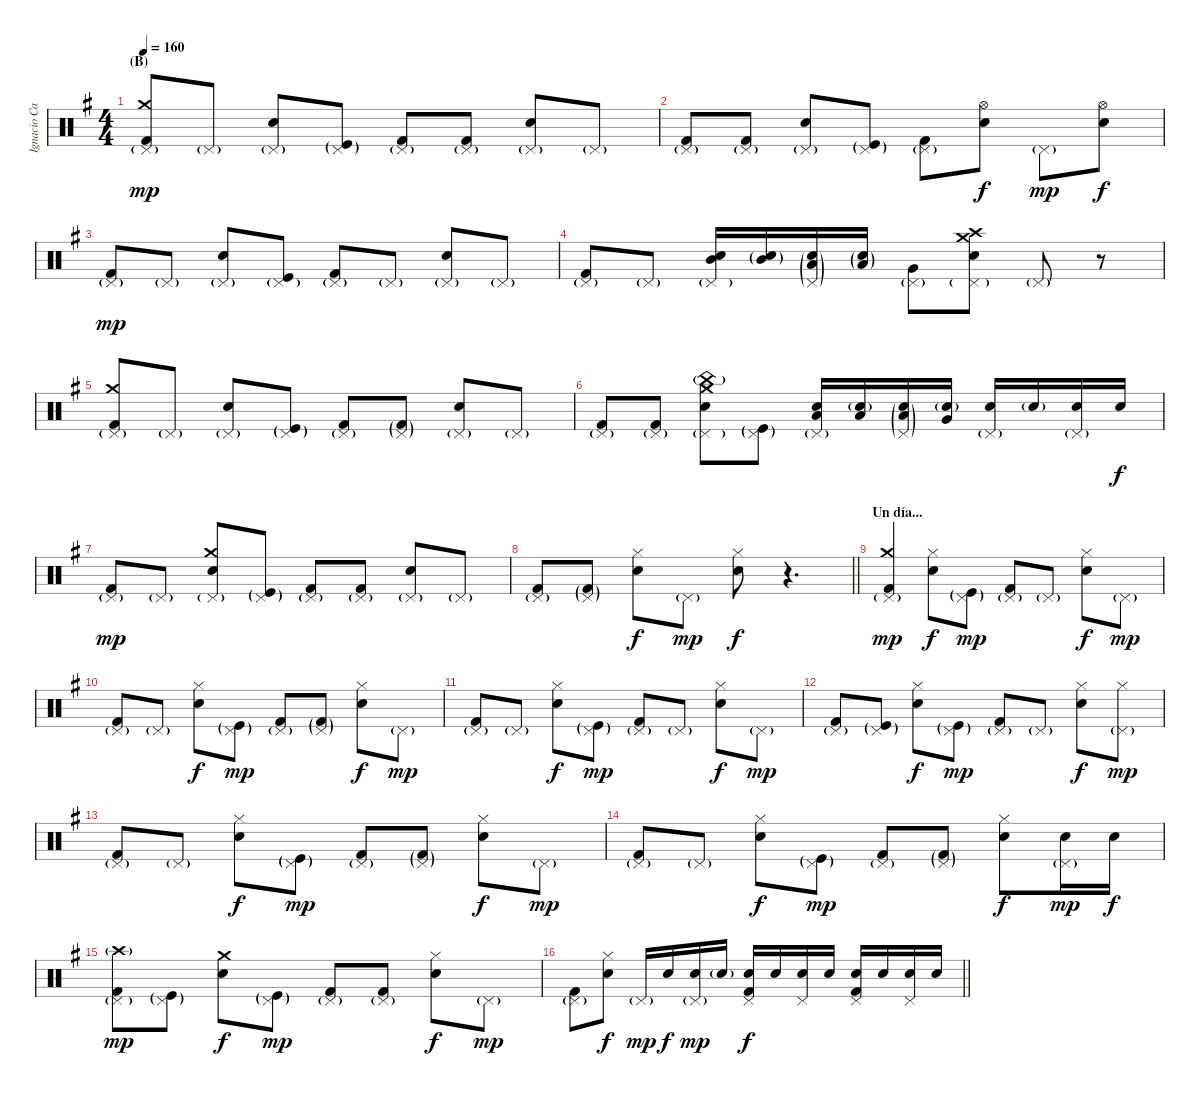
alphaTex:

\track ("Ignacio Cantera - Batería" "Ignacio Ca") {instrument percussion}
\staff {score}
\articulation defaults
\ts (4 4)
\section ("" "(B)")
\tempo 160
\clef neutral
\ks eminor
("Pedal Hi-Hat (hit)"{g} "Crash medium (hit)" "Kick (hit) 2").8{dy mp} "Pedal Hi-Hat (hit)"{g}.8 ("Pedal Hi-Hat (hit)"{g} "Snare (hit) 2").8 ("Pedal Hi-Hat (hit)"{g} "Kick (hit)"{g}).8 ("Pedal Hi-Hat (hit)"{g} "Kick (hit) 2").8 ("Pedal Hi-Hat (hit)"{g} "Kick (hit) 2").8 ("Pedal Hi-Hat (hit)"{g} "Snare (hit) 2").8 "Pedal Hi-Hat (hit)"{g}.8 |
("Pedal Hi-Hat (hit)"{g} "Kick (hit) 2").8 ("Pedal Hi-Hat (hit)"{g} "Kick (hit) 2").8 ("Pedal Hi-Hat (hit)"{g} "Snare (hit) 2").8 ("Pedal Hi-Hat (hit)"{g} "Kick (hit)"{g}).8 ("Pedal Hi-Hat (hit)"{g} "Kick (hit) 2").8 ("Hi-Hat (open)" "Snare (hit) 2").8{dy f} "Pedal Hi-Hat (hit)"{g}.8{dy mp} ("Hi-Hat (open)" "Snare (hit) 2").8{dy f} |
("Pedal Hi-Hat (hit)"{g} "Kick (hit) 2").8{dy mp} "Pedal Hi-Hat (hit)"{g}.8 ("Pedal Hi-Hat (hit)"{g} "Snare (hit) 2").8 ("Pedal Hi-Hat (hit)"{g} "Kick (hit)").8 ("Pedal Hi-Hat (hit)"{g} "Kick (hit) 2").8 "Pedal Hi-Hat (hit)"{g}.8 ("Pedal Hi-Hat (hit)"{g} "Snare (hit) 2").8 "Pedal Hi-Hat (hit)"{g}.8 |
("Pedal Hi-Hat (hit)"{g} "Kick (hit) 2").8 "Pedal Hi-Hat (hit)"{g}.8 ("Pedal Hi-Hat (hit)"{g} "Mid Tom (hit)" "Snare (hit) 2").16 ("Mid Tom (hit)"{g} "Snare (hit) 2"{g}).16 ("Pedal Hi-Hat (hit)"{g} "Low Tom (hit)"{g} "Snare (hit) 2"{g}).16 ("Low Tom (hit)"{g} "Snare (hit) 2"{g}).16 ("Pedal Hi-Hat (hit)"{g} "Very Low Tom (hit)").8 ("Pedal Hi-Hat (hit)"{g} "Snare (hit) 2" "Crash medium (hit)" "Crash high (hit)").8 "Pedal Hi-Hat (hit)"{g}.8 r.8 |
("Pedal Hi-Hat (hit)"{g} "Crash medium (hit)" "Kick (hit) 2").8 "Pedal Hi-Hat (hit)"{g}.8 ("Pedal Hi-Hat (hit)"{g} "Snare (hit) 2").8 ("Pedal Hi-Hat (hit)"{g} "Kick (hit)"{g}).8 ("Pedal Hi-Hat (hit)"{g} "Kick (hit) 2").8 ("Pedal Hi-Hat (hit)"{g} "Kick (hit) 2"{g}).8 ("Pedal Hi-Hat (hit)"{g} "Snare (hit) 2").8 "Pedal Hi-Hat (hit)"{g}.8 |
("Pedal Hi-Hat (hit)"{g} "Kick (hit) 2").8 ("Pedal Hi-Hat (hit)"{g} "Kick (hit) 2").8 ("Pedal Hi-Hat (hit)"{g} "Snare (hit) 2" "Crash medium (hit)" "China (hit)"{g}).8 ("Pedal Hi-Hat (hit)"{g} "Kick (hit)"{g}).8 ("Pedal Hi-Hat (hit)"{g} "Electric Snare (hit)" "Low Tom (hit)").16 ("Electric Snare (hit)"{g} "Low Tom (hit)").16 ("Pedal Hi-Hat (hit)"{g} "Electric Snare (hit)"{g} "Low Tom (hit)"{g}).16 ("Electric Snare (hit)"{g} "Very Low Tom (hit)").16 ("Pedal Hi-Hat (hit)"{g} "Electric Snare (hit)").16 "Electric Snare (hit)"{g}.16 ("Pedal Hi-Hat (hit)"{g} "Electric Snare (hit)").16 "Electric Snare (hit)".16{dy f} |
("Pedal Hi-Hat (hit)"{g} "Kick (hit) 2").8{dy mp} "Pedal Hi-Hat (hit)"{g}.8 ("Pedal Hi-Hat (hit)"{g} "Snare (hit) 2" "Crash medium (hit)").8 ("Pedal Hi-Hat (hit)"{g} "Kick (hit)"{g}).8 ("Pedal Hi-Hat (hit)"{g} "Kick (hit) 2").8 ("Pedal Hi-Hat (hit)"{g} "Kick (hit) 2").8 ("Pedal Hi-Hat (hit)"{g} "Snare (hit) 2").8 "Pedal Hi-Hat (hit)"{g}.8 |
\barLineRight lightlight
("Pedal Hi-Hat (hit)"{g} "Kick (hit) 2").8 ("Pedal Hi-Hat (hit)"{g} "Kick (hit) 2"{g}).8 ("Hi-Hat (closed)" "Snare (hit) 2").8{dy f} "Pedal Hi-Hat (hit)"{g}.8{dy mp} ("Hi-Hat (closed)" "Snare (hit) 2").8{dy f} r.4{d} |
\section ("" "Un día...")
("Pedal Hi-Hat (hit)"{g} "Crash medium (hit)" "Kick (hit) 2").4{dy mp} ("Hi-Hat (closed)" "Snare (hit) 2").8{dy f} ("Pedal Hi-Hat (hit)"{g} "Kick (hit)"{g}).8{dy mp} ("Pedal Hi-Hat (hit)"{g} "Kick (hit) 2").8 "Pedal Hi-Hat (hit)"{g}.8 ("Hi-Hat (closed)" "Snare (hit) 2").8{dy f} "Pedal Hi-Hat (hit)"{g}.8{dy mp} |
("Pedal Hi-Hat (hit)"{g} "Kick (hit) 2").8 "Pedal Hi-Hat (hit)"{g}.8 ("Hi-Hat (closed)" "Snare (hit) 2").8{dy f} ("Pedal Hi-Hat (hit)"{g} "Kick (hit)"{g}).8{dy mp} ("Pedal Hi-Hat (hit)"{g} "Kick (hit) 2").8 ("Pedal Hi-Hat (hit)"{g} "Kick (hit) 2"{g}).8 ("Hi-Hat (closed)" "Snare (hit) 2").8{dy f} "Pedal Hi-Hat (hit)"{g}.8{dy mp} |
("Pedal Hi-Hat (hit)"{g} "Kick (hit) 2").8 "Pedal Hi-Hat (hit)"{g}.8 ("Hi-Hat (closed)" "Snare (hit) 2").8{dy f} ("Pedal Hi-Hat (hit)"{g} "Kick (hit)"{g}).8{dy mp} ("Pedal Hi-Hat (hit)"{g} "Kick (hit) 2").8 "Pedal Hi-Hat (hit)"{g}.8 ("Hi-Hat (closed)" "Snare (hit) 2").8{dy f} "Pedal Hi-Hat (hit)"{g}.8{dy mp} |
("Pedal Hi-Hat (hit)"{g} "Kick (hit) 2").8 ("Pedal Hi-Hat (hit)"{g} "Kick (hit)"{g}).8 ("Hi-Hat (closed)" "Snare (hit) 2").8{dy f} ("Pedal Hi-Hat (hit)"{g} "Kick (hit)"{g}).8{dy mp} ("Pedal Hi-Hat (hit)"{g} "Kick (hit) 2").8 "Pedal Hi-Hat (hit)"{g}.8 ("Hi-Hat (closed)" "Snare (hit) 2").8{dy f} ("Pedal Hi-Hat (hit)"{g} "Hi-Hat (closed)").8{dy mp} |
("Pedal Hi-Hat (hit)"{g} "Kick (hit) 2").8 "Pedal Hi-Hat (hit)"{g}.8 ("Hi-Hat (closed)" "Snare (hit) 2").8{dy f} ("Pedal Hi-Hat (hit)"{g} "Kick (hit)"{g}).8{dy mp} ("Pedal Hi-Hat (hit)"{g} "Kick (hit) 2").8 ("Pedal Hi-Hat (hit)"{g} "Kick (hit) 2"{g}).8 ("Hi-Hat (closed)" "Snare (hit) 2").8{dy f} "Pedal Hi-Hat (hit)"{g}.8{dy mp} |
("Pedal Hi-Hat (hit)"{g} "Kick (hit) 2").8 "Pedal Hi-Hat (hit)"{g}.8 ("Hi-Hat (closed)" "Snare (hit) 2").8{dy f} ("Pedal Hi-Hat (hit)"{g} "Kick (hit)"{g}).8{dy mp} ("Pedal Hi-Hat (hit)"{g} "Kick (hit) 2").8 ("Pedal Hi-Hat (hit)"{g} "Kick (hit) 2"{g}).8 ("Hi-Hat (closed)" "Snare (hit) 2").8{dy f} ("Pedal Hi-Hat (hit)"{g} "Snare (hit) 2").16{dy mp} "Snare (hit) 2".16{dy f} |
("Pedal Hi-Hat (hit)"{g} "Crash high (hit)"{g} "Kick (hit) 2").8{dy mp} ("Pedal Hi-Hat (hit)"{g} "Kick (hit)"{g}).8 ("Crash medium (hit)" "Snare (hit) 2").8{dy f} ("Pedal Hi-Hat (hit)"{g} "Kick (hit)"{g}).8{dy mp} ("Pedal Hi-Hat (hit)"{g} "Kick (hit) 2").8 ("Pedal Hi-Hat (hit)"{g} "Kick (hit) 2").8 ("Hi-Hat (closed)" "Snare (hit) 2").8{dy f} "Pedal Hi-Hat (hit)"{g}.8{dy mp} |
\barLineRight lightlight
("Pedal Hi-Hat (hit)"{g} "Kick (hit) 2").8 ("Hi-Hat (closed)" "Electric Snare (hit)").8{dy f} "Pedal Hi-Hat (hit)"{g}.16{dy mp} "Electric Snare (hit)".16{dy f} ("Pedal Hi-Hat (hit)"{g} "Electric Snare (hit)").16{dy mp} "Electric Snare (hit)"{g}.16 ("Pedal Hi-Hat (hit)" "Electric Snare (hit)" "Kick (hit) 2").16{dy f} "Electric Snare (hit)".16 ("Pedal Hi-Hat (hit)" "Electric Snare (hit)").16 "Electric Snare (hit)".16 ("Pedal Hi-Hat (hit)" "Electric Snare (hit)" "Kick (hit) 2").16 "Electric Snare (hit)".16 ("Pedal Hi-Hat (hit)" "Electric Snare (hit)").16 "Electric Snare (hit)".16
